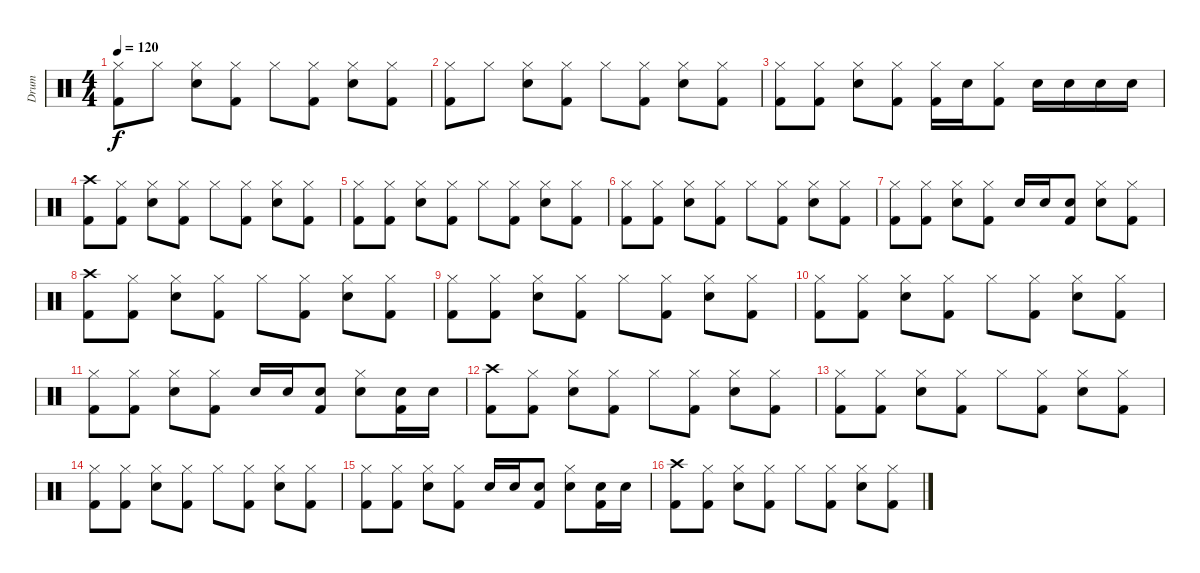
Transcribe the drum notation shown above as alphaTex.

\track ("Drum" "Drum") {instrument percussion}
\staff {score}
\articulation defaults
\ts (4 4)
\tempo 120
\clef neutral
\ks c
("Hi-Hat (closed)" "Kick (hit) 2").8{dy f} "Hi-Hat (closed)".8 ("Hi-Hat (closed)" "Snare (hit) 2").8 ("Hi-Hat (closed)" "Kick (hit) 2").8 "Hi-Hat (closed)".8 ("Hi-Hat (closed)" "Kick (hit) 2").8 ("Hi-Hat (closed)" "Snare (hit) 2").8 ("Hi-Hat (closed)" "Kick (hit) 2").8 |
("Hi-Hat (closed)" "Kick (hit) 2").8 "Hi-Hat (closed)".8 ("Hi-Hat (closed)" "Snare (hit) 2").8 ("Hi-Hat (closed)" "Kick (hit) 2").8 "Hi-Hat (closed)".8 ("Hi-Hat (closed)" "Kick (hit) 2").8 ("Hi-Hat (closed)" "Snare (hit) 2").8 ("Hi-Hat (closed)" "Kick (hit) 2").8 |
("Hi-Hat (closed)" "Kick (hit) 2").8 ("Hi-Hat (closed)" "Kick (hit) 2").8 ("Hi-Hat (closed)" "Snare (hit) 2").8 ("Hi-Hat (closed)" "Kick (hit) 2").8 ("Hi-Hat (closed)" "Kick (hit) 2").16 "Snare (hit) 2".16 ("Hi-Hat (closed)" "Kick (hit) 2").8 "Snare (hit) 2".16 "Snare (hit) 2".16 "Snare (hit) 2".16 "Snare (hit) 2".16 |
("Crash high (hit)" "Kick (hit) 2").8 ("Hi-Hat (closed)" "Kick (hit) 2").8 ("Hi-Hat (closed)" "Snare (hit) 2").8 ("Hi-Hat (closed)" "Kick (hit) 2").8 "Hi-Hat (closed)".8 ("Hi-Hat (closed)" "Kick (hit) 2").8 ("Hi-Hat (closed)" "Snare (hit) 2").8 ("Hi-Hat (closed)" "Kick (hit) 2").8 |
("Hi-Hat (closed)" "Kick (hit) 2").8 ("Hi-Hat (closed)" "Kick (hit) 2").8 ("Hi-Hat (closed)" "Snare (hit) 2").8 ("Hi-Hat (closed)" "Kick (hit) 2").8 "Hi-Hat (closed)".8 ("Hi-Hat (closed)" "Kick (hit) 2").8 ("Hi-Hat (closed)" "Snare (hit) 2").8 ("Hi-Hat (closed)" "Kick (hit) 2").8 |
("Hi-Hat (closed)" "Kick (hit) 2").8 ("Hi-Hat (closed)" "Kick (hit) 2").8 ("Hi-Hat (closed)" "Snare (hit) 2").8 ("Hi-Hat (closed)" "Kick (hit) 2").8 "Hi-Hat (closed)".8 ("Hi-Hat (closed)" "Kick (hit) 2").8 ("Hi-Hat (closed)" "Snare (hit) 2").8 ("Hi-Hat (closed)" "Kick (hit) 2").8 |
("Hi-Hat (closed)" "Kick (hit) 2").8 ("Hi-Hat (closed)" "Kick (hit) 2").8 ("Hi-Hat (closed)" "Snare (hit) 2").8 ("Hi-Hat (closed)" "Kick (hit) 2").8 "Snare (hit) 2".16 "Snare (hit) 2".16 ("Snare (hit) 2" "Kick (hit) 2").8 ("Hi-Hat (closed)" "Snare (hit) 2").8 ("Hi-Hat (closed)" "Kick (hit) 2").8 |
("Crash high (hit)" "Kick (hit) 2").8 ("Hi-Hat (closed)" "Kick (hit) 2").8 ("Hi-Hat (closed)" "Snare (hit) 2").8 ("Hi-Hat (closed)" "Kick (hit) 2").8 "Hi-Hat (closed)".8 ("Hi-Hat (closed)" "Kick (hit) 2").8 ("Hi-Hat (closed)" "Snare (hit) 2").8 ("Hi-Hat (closed)" "Kick (hit) 2").8 |
("Hi-Hat (closed)" "Kick (hit) 2").8 ("Hi-Hat (closed)" "Kick (hit) 2").8 ("Hi-Hat (closed)" "Snare (hit) 2").8 ("Hi-Hat (closed)" "Kick (hit) 2").8 "Hi-Hat (closed)".8 ("Hi-Hat (closed)" "Kick (hit) 2").8 ("Hi-Hat (closed)" "Snare (hit) 2").8 ("Hi-Hat (closed)" "Kick (hit) 2").8 |
("Hi-Hat (closed)" "Kick (hit) 2").8 ("Hi-Hat (closed)" "Kick (hit) 2").8 ("Hi-Hat (closed)" "Snare (hit) 2").8 ("Hi-Hat (closed)" "Kick (hit) 2").8 "Hi-Hat (closed)".8 ("Hi-Hat (closed)" "Kick (hit) 2").8 ("Hi-Hat (closed)" "Snare (hit) 2").8 ("Hi-Hat (closed)" "Kick (hit) 2").8 |
("Hi-Hat (closed)" "Kick (hit) 2").8 ("Hi-Hat (closed)" "Kick (hit) 2").8 ("Hi-Hat (closed)" "Snare (hit) 2").8 ("Hi-Hat (closed)" "Kick (hit) 2").8 "Snare (hit) 2".16 "Snare (hit) 2".16 ("Snare (hit) 2" "Kick (hit) 2").8 ("Hi-Hat (closed)" "Snare (hit) 2").8 ("Snare (hit) 2" "Kick (hit) 2").16 "Snare (hit) 2".16 |
("Crash high (hit)" "Kick (hit) 2").8 ("Hi-Hat (closed)" "Kick (hit) 2").8 ("Hi-Hat (closed)" "Snare (hit) 2").8 ("Hi-Hat (closed)" "Kick (hit) 2").8 "Hi-Hat (closed)".8 ("Hi-Hat (closed)" "Kick (hit) 2").8 ("Hi-Hat (closed)" "Snare (hit) 2").8 ("Hi-Hat (closed)" "Kick (hit) 2").8 |
("Hi-Hat (closed)" "Kick (hit) 2").8 ("Hi-Hat (closed)" "Kick (hit) 2").8 ("Hi-Hat (closed)" "Snare (hit) 2").8 ("Hi-Hat (closed)" "Kick (hit) 2").8 "Hi-Hat (closed)".8 ("Hi-Hat (closed)" "Kick (hit) 2").8 ("Hi-Hat (closed)" "Snare (hit) 2").8 ("Hi-Hat (closed)" "Kick (hit) 2").8 |
("Hi-Hat (closed)" "Kick (hit) 2").8 ("Hi-Hat (closed)" "Kick (hit) 2").8 ("Hi-Hat (closed)" "Snare (hit) 2").8 ("Hi-Hat (closed)" "Kick (hit) 2").8 "Hi-Hat (closed)".8 ("Hi-Hat (closed)" "Kick (hit) 2").8 ("Hi-Hat (closed)" "Snare (hit) 2").8 ("Hi-Hat (closed)" "Kick (hit) 2").8 |
("Hi-Hat (closed)" "Kick (hit) 2").8 ("Hi-Hat (closed)" "Kick (hit) 2").8 ("Hi-Hat (closed)" "Snare (hit) 2").8 ("Hi-Hat (closed)" "Kick (hit) 2").8 "Snare (hit) 2".16 "Snare (hit) 2".16 ("Snare (hit) 2" "Kick (hit) 2").8 ("Hi-Hat (closed)" "Snare (hit) 2").8 ("Snare (hit) 2" "Kick (hit) 2").16 "Snare (hit) 2".16 |
("Crash high (hit)" "Kick (hit) 2").8 ("Hi-Hat (closed)" "Kick (hit) 2").8 ("Hi-Hat (closed)" "Snare (hit) 2").8 ("Hi-Hat (closed)" "Kick (hit) 2").8 "Hi-Hat (closed)".8 ("Hi-Hat (closed)" "Kick (hit) 2").8 ("Hi-Hat (closed)" "Snare (hit) 2").8 ("Hi-Hat (closed)" "Kick (hit) 2").8
